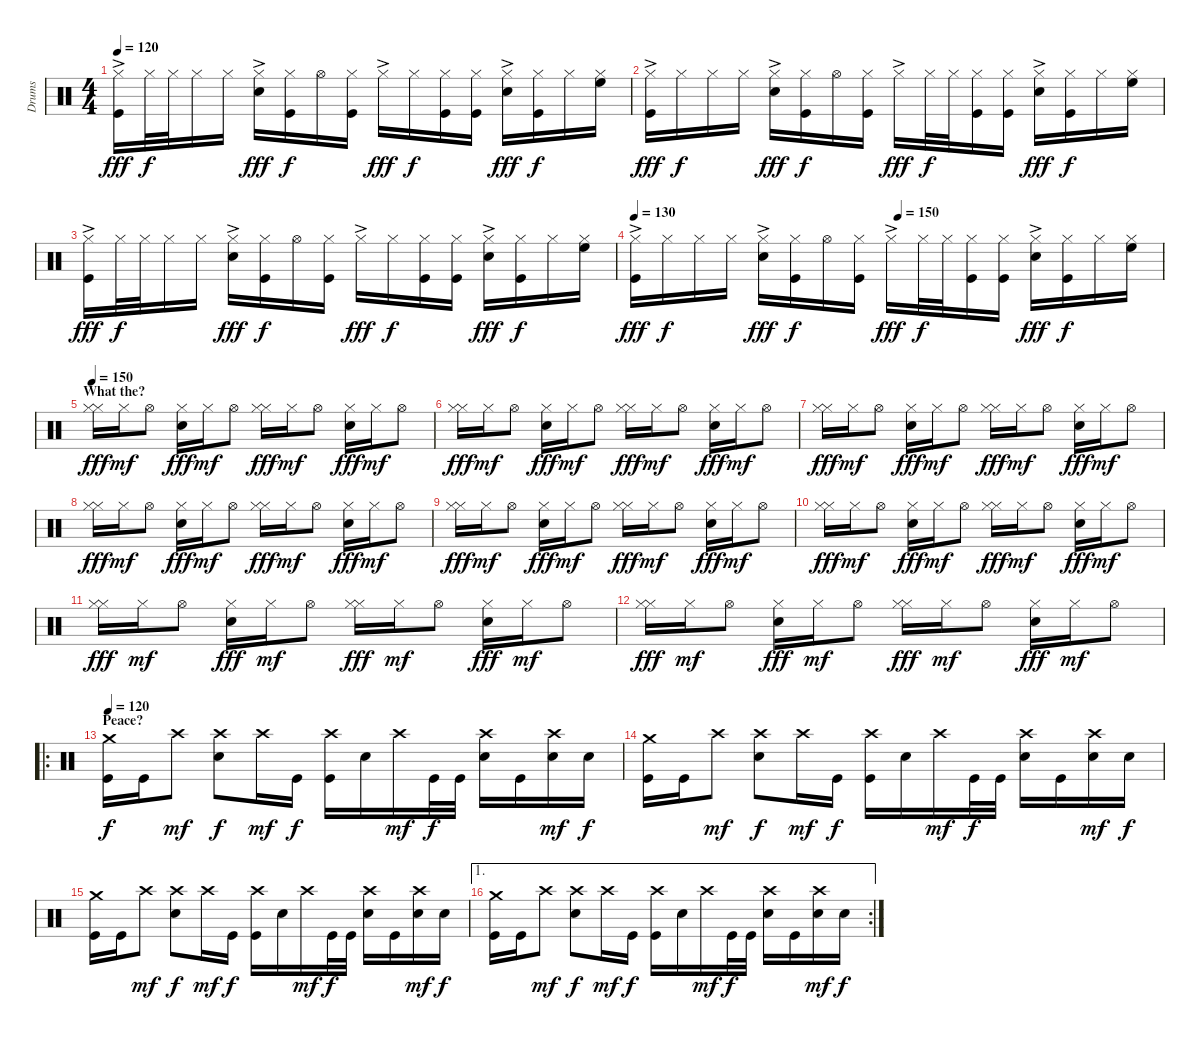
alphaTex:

\track ("Drums" "Drums") {instrument percussion}
\staff {score}
\articulation defaults
\ts (4 4)
\tempo 120
\clef neutral
\ks c
("Hi-Hat (closed)"{ac} "Kick (hit)").16{dy fff} "Hi-Hat (closed)".32{dy f} "Hi-Hat (closed)".32 "Hi-Hat (closed)".16 "Hi-Hat (closed)".16 ("Hi-Hat (closed)"{ac} "Electric Snare (hit)").16{dy fff} ("Hi-Hat (closed)" "Kick (hit)").16{dy f} "Hi-Hat (open)".16 ("Hi-Hat (closed)" "Kick (hit)").16 "Hi-Hat (closed)"{ac}.16{dy fff} "Hi-Hat (closed)".16{dy f} ("Hi-Hat (closed)" "Kick (hit)").16 ("Hi-Hat (closed)" "Kick (hit)").16 ("Hi-Hat (closed)"{ac} "Electric Snare (hit)").16{dy fff} ("Hi-Hat (closed)" "Kick (hit)").16{dy f} "Hi-Hat (closed)".16 ("Hi-Hat (closed)" "High Floor Tom (hit)").16 |
("Hi-Hat (closed)"{ac} "Kick (hit)").16{dy fff} "Hi-Hat (closed)".16{dy f} "Hi-Hat (closed)".16 "Hi-Hat (closed)".16 ("Hi-Hat (closed)"{ac} "Electric Snare (hit)").16{dy fff} ("Hi-Hat (closed)" "Kick (hit)").16{dy f} "Hi-Hat (open)".16 ("Hi-Hat (closed)" "Kick (hit)").16 "Hi-Hat (closed)"{ac}.16{dy fff} "Hi-Hat (closed)".32{dy f} "Hi-Hat (closed)".32 ("Hi-Hat (closed)" "Kick (hit)").16 ("Hi-Hat (closed)" "Kick (hit)").16 ("Hi-Hat (closed)"{ac} "Electric Snare (hit)").16{dy fff} ("Hi-Hat (closed)" "Kick (hit)").16{dy f} "Hi-Hat (closed)".16 ("Hi-Hat (closed)" "High Floor Tom (hit)").16 |
("Hi-Hat (closed)"{ac} "Kick (hit)").16{dy fff} "Hi-Hat (closed)".32{dy f} "Hi-Hat (closed)".32 "Hi-Hat (closed)".16 "Hi-Hat (closed)".16 ("Hi-Hat (closed)"{ac} "Electric Snare (hit)").16{dy fff} ("Hi-Hat (closed)" "Kick (hit)").16{dy f} "Hi-Hat (open)".16 ("Hi-Hat (closed)" "Kick (hit)").16 "Hi-Hat (closed)"{ac}.16{dy fff} "Hi-Hat (closed)".16{dy f} ("Hi-Hat (closed)" "Kick (hit)").16 ("Hi-Hat (closed)" "Kick (hit)").16 ("Hi-Hat (closed)"{ac} "Electric Snare (hit)").16{dy fff} ("Hi-Hat (closed)" "Kick (hit)").16{dy f} "Hi-Hat (closed)".16 ("Hi-Hat (closed)" "High Floor Tom (hit)").16 |
\tempo 130
\tempo (150 0.5)
("Hi-Hat (closed)"{ac} "Kick (hit)").16{dy fff} "Hi-Hat (closed)".16{dy f} "Hi-Hat (closed)".16 "Hi-Hat (closed)".16 ("Hi-Hat (closed)"{ac} "Electric Snare (hit)").16{dy fff} ("Hi-Hat (closed)" "Kick (hit)").16{dy f} "Hi-Hat (open)".16 ("Hi-Hat (closed)" "Kick (hit)").16 "Hi-Hat (closed)"{ac}.16{dy fff} "Hi-Hat (closed)".32{dy f} "Hi-Hat (closed)".32 ("Hi-Hat (closed)" "Kick (hit)").16 ("Hi-Hat (closed)" "Kick (hit)").16 ("Hi-Hat (closed)"{ac} "Electric Snare (hit)").16{dy fff} ("Hi-Hat (closed)" "Kick (hit)").16{dy f} "Hi-Hat (closed)".16 ("Hi-Hat (closed)" "High Floor Tom (hit)").16 |
\section ("" "What the?")
\tempo 150
("Hi-Hat (closed)" "Hi-Hat (closed)").16{dy fff} "Hi-Hat (closed)".16{dy mf} "Hi-Hat (open)".8 ("Hi-Hat (closed)" "Hand Clap (hit)").16{dy fff} "Hi-Hat (closed)".16{dy mf} "Hi-Hat (open)".8 ("Hi-Hat (closed)" "Hi-Hat (closed)").16{dy fff} "Hi-Hat (closed)".16{dy mf} "Hi-Hat (open)".8 ("Hi-Hat (closed)" "Hand Clap (hit)").16{dy fff} "Hi-Hat (closed)".16{dy mf} "Hi-Hat (open)".8 |
("Hi-Hat (closed)" "Hi-Hat (closed)").16{dy fff} "Hi-Hat (closed)".16{dy mf} "Hi-Hat (open)".8 ("Hi-Hat (closed)" "Hand Clap (hit)").16{dy fff} "Hi-Hat (closed)".16{dy mf} "Hi-Hat (open)".8 ("Hi-Hat (closed)" "Hi-Hat (closed)").16{dy fff} "Hi-Hat (closed)".16{dy mf} "Hi-Hat (open)".8 ("Hi-Hat (closed)" "Hand Clap (hit)").16{dy fff} "Hi-Hat (closed)".16{dy mf} "Hi-Hat (open)".8 |
("Hi-Hat (closed)" "Hi-Hat (closed)").16{dy fff} "Hi-Hat (closed)".16{dy mf} "Hi-Hat (open)".8 ("Hi-Hat (closed)" "Hand Clap (hit)").16{dy fff} "Hi-Hat (closed)".16{dy mf} "Hi-Hat (open)".8 ("Hi-Hat (closed)" "Hi-Hat (closed)").16{dy fff} "Hi-Hat (closed)".16{dy mf} "Hi-Hat (open)".8 ("Hi-Hat (closed)" "Hand Clap (hit)").16{dy fff} "Hi-Hat (closed)".16{dy mf} "Hi-Hat (open)".8 |
("Hi-Hat (closed)" "Hi-Hat (closed)").16{dy fff} "Hi-Hat (closed)".16{dy mf} "Hi-Hat (open)".8 ("Hi-Hat (closed)" "Hand Clap (hit)").16{dy fff} "Hi-Hat (closed)".16{dy mf} "Hi-Hat (open)".8 ("Hi-Hat (closed)" "Hi-Hat (closed)").16{dy fff} "Hi-Hat (closed)".16{dy mf} "Hi-Hat (open)".8 ("Hi-Hat (closed)" "Hand Clap (hit)").16{dy fff} "Hi-Hat (closed)".16{dy mf} "Hi-Hat (open)".8 |
("Hi-Hat (closed)" "Hi-Hat (closed)").16{dy fff} "Hi-Hat (closed)".16{dy mf} "Hi-Hat (open)".8 ("Hi-Hat (closed)" "Hand Clap (hit)").16{dy fff} "Hi-Hat (closed)".16{dy mf} "Hi-Hat (open)".8 ("Hi-Hat (closed)" "Hi-Hat (closed)").16{dy fff} "Hi-Hat (closed)".16{dy mf} "Hi-Hat (open)".8 ("Hi-Hat (closed)" "Hand Clap (hit)").16{dy fff} "Hi-Hat (closed)".16{dy mf} "Hi-Hat (open)".8 |
("Hi-Hat (closed)" "Hi-Hat (closed)").16{dy fff} "Hi-Hat (closed)".16{dy mf} "Hi-Hat (open)".8 ("Hi-Hat (closed)" "Hand Clap (hit)").16{dy fff} "Hi-Hat (closed)".16{dy mf} "Hi-Hat (open)".8 ("Hi-Hat (closed)" "Hi-Hat (closed)").16{dy fff} "Hi-Hat (closed)".16{dy mf} "Hi-Hat (open)".8 ("Hi-Hat (closed)" "Hand Clap (hit)").16{dy fff} "Hi-Hat (closed)".16{dy mf} "Hi-Hat (open)".8 |
("Hi-Hat (closed)" "Hi-Hat (closed)").16{dy fff} "Hi-Hat (closed)".16{dy mf} "Hi-Hat (open)".8 ("Hi-Hat (closed)" "Hand Clap (hit)").16{dy fff} "Hi-Hat (closed)".16{dy mf} "Hi-Hat (open)".8 ("Hi-Hat (closed)" "Hi-Hat (closed)").16{dy fff} "Hi-Hat (closed)".16{dy mf} "Hi-Hat (open)".8 ("Hi-Hat (closed)" "Hand Clap (hit)").16{dy fff} "Hi-Hat (closed)".16{dy mf} "Hi-Hat (open)".8 |
("Hi-Hat (closed)" "Hi-Hat (closed)").16{dy fff} "Hi-Hat (closed)".16{dy mf} "Hi-Hat (open)".8 ("Hi-Hat (closed)" "Hand Clap (hit)").16{dy fff} "Hi-Hat (closed)".16{dy mf} "Hi-Hat (open)".8 ("Hi-Hat (closed)" "Hi-Hat (closed)").16{dy fff} "Hi-Hat (closed)".16{dy mf} "Hi-Hat (open)".8 ("Hi-Hat (closed)" "Hand Clap (hit)").16{dy fff} "Hi-Hat (closed)".16{dy mf} "Hi-Hat (open)".8 |
\ro
\section ("" "Peace?")
\tempo 120
("Crash medium (hit)" "Kick (hit)").16{dy f} "Kick (hit)".16 "Crash high (hit)".8{dy mf} ("Crash high (hit)" "Electric Snare (hit)").8{dy f} "Crash high (hit)".16{dy mf} "Kick (hit)".16{dy f} ("Crash high (hit)" "Kick (hit)").16 "Electric Snare (hit)".16 "Crash high (hit)".16{dy mf} "Kick (hit)".32{dy f} "Kick (hit)".32 ("Crash high (hit)" "Electric Snare (hit)").16 "Kick (hit)".16 ("Crash high (hit)" "Electric Snare (hit)").16{dy mf} "Electric Snare (hit)".16{dy f} |
("Crash medium (hit)" "Kick (hit)").16 "Kick (hit)".16 "Crash high (hit)".8{dy mf} ("Crash high (hit)" "Electric Snare (hit)").8{dy f} "Crash high (hit)".16{dy mf} "Kick (hit)".16{dy f} ("Crash high (hit)" "Kick (hit)").16 "Electric Snare (hit)".16 "Crash high (hit)".16{dy mf} "Kick (hit)".32{dy f} "Kick (hit)".32 ("Crash high (hit)" "Electric Snare (hit)").16 "Kick (hit)".16 ("Crash high (hit)" "Electric Snare (hit)").16{dy mf} "Electric Snare (hit)".16{dy f} |
("Crash medium (hit)" "Kick (hit)").16 "Kick (hit)".16 "Crash high (hit)".8{dy mf} ("Crash high (hit)" "Electric Snare (hit)").8{dy f} "Crash high (hit)".16{dy mf} "Kick (hit)".16{dy f} ("Crash high (hit)" "Kick (hit)").16 "Electric Snare (hit)".16 "Crash high (hit)".16{dy mf} "Kick (hit)".32{dy f} "Kick (hit)".32 ("Crash high (hit)" "Electric Snare (hit)").16 "Kick (hit)".16 ("Crash high (hit)" "Electric Snare (hit)").16{dy mf} "Electric Snare (hit)".16{dy f} |
\ae 1
\rc 2
("Crash medium (hit)" "Kick (hit)").16 "Kick (hit)".16 "Crash high (hit)".8{dy mf} ("Crash high (hit)" "Electric Snare (hit)").8{dy f} "Crash high (hit)".16{dy mf} "Kick (hit)".16{dy f} ("Crash high (hit)" "Kick (hit)").16 "Electric Snare (hit)".16 "Crash high (hit)".16{dy mf} "Kick (hit)".32{dy f} "Kick (hit)".32 ("Crash high (hit)" "Electric Snare (hit)").16 "Kick (hit)".16 ("Crash high (hit)" "Electric Snare (hit)").16{dy mf} "Electric Snare (hit)".16{dy f}
